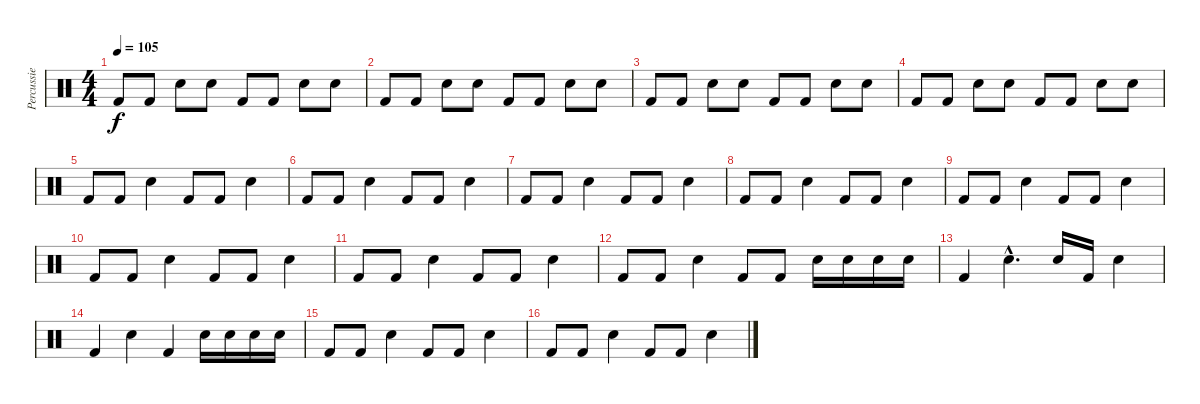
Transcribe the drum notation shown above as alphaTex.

\track ("Percussie" "Percussie") {instrument percussion}
\staff {score}
\articulation defaults
\ts (4 4)
\tempo 105
\clef neutral
\ks c "Kick (hit) 2".8{dy f} "Kick (hit) 2".8 "Electric Snare (hit)".8 "Electric Snare (hit)".8 "Kick (hit) 2".8 "Kick (hit) 2".8 "Electric Snare (hit)".8 "Electric Snare (hit)".8
|
"Kick (hit) 2".8 "Kick (hit) 2".8 "Electric Snare (hit)".8 "Electric Snare (hit)".8 "Kick (hit) 2".8 "Kick (hit) 2".8 "Electric Snare (hit)".8 "Electric Snare (hit)".8 |
"Kick (hit) 2".8 "Kick (hit) 2".8 "Electric Snare (hit)".8 "Electric Snare (hit)".8 "Kick (hit) 2".8 "Kick (hit) 2".8 "Electric Snare (hit)".8 "Electric Snare (hit)".8 |
"Kick (hit) 2".8 "Kick (hit) 2".8 "Electric Snare (hit)".8 "Electric Snare (hit)".8 "Kick (hit) 2".8 "Kick (hit) 2".8 "Electric Snare (hit)".8 "Electric Snare (hit)".8 |
"Kick (hit) 2".8 "Kick (hit) 2".8 "Electric Snare (hit)".4 "Kick (hit) 2".8 "Kick (hit) 2".8 "Electric Snare (hit)".4 |
"Kick (hit) 2".8 "Kick (hit) 2".8 "Electric Snare (hit)".4 "Kick (hit) 2".8 "Kick (hit) 2".8 "Electric Snare (hit)".4 |
"Kick (hit) 2".8 "Kick (hit) 2".8 "Electric Snare (hit)".4 "Kick (hit) 2".8 "Kick (hit) 2".8 "Electric Snare (hit)".4 |
"Kick (hit) 2".8 "Kick (hit) 2".8 "Electric Snare (hit)".4 "Kick (hit) 2".8 "Kick (hit) 2".8 "Electric Snare (hit)".4 |
"Kick (hit) 2".8 "Kick (hit) 2".8 "Electric Snare (hit)".4 "Kick (hit) 2".8 "Kick (hit) 2".8 "Electric Snare (hit)".4 |
"Kick (hit) 2".8 "Kick (hit) 2".8 "Electric Snare (hit)".4 "Kick (hit) 2".8 "Kick (hit) 2".8 "Electric Snare (hit)".4 |
"Kick (hit) 2".8 "Kick (hit) 2".8 "Electric Snare (hit)".4 "Kick (hit) 2".8 "Kick (hit) 2".8 "Electric Snare (hit)".4 |
"Kick (hit) 2".8 "Kick (hit) 2".8 "Electric Snare (hit)".4 "Kick (hit) 2".8 "Kick (hit) 2".8 "Electric Snare (hit)".16 "Electric Snare (hit)".16 "Electric Snare (hit)".16 "Electric Snare (hit)".16 |
"Kick (hit) 2".4 "Electric Snare (hit)"{hac}.4{d} "Electric Snare (hit)".16 "Kick (hit) 2".16 "Electric Snare (hit)".4 |
"Kick (hit) 2".4 "Electric Snare (hit)".4 "Kick (hit) 2".4 "Electric Snare (hit)".16 "Electric Snare (hit)".16 "Electric Snare (hit)".16 "Electric Snare (hit)".16 |
"Kick (hit) 2".8 "Kick (hit) 2".8 "Electric Snare (hit)".4 "Kick (hit) 2".8 "Kick (hit) 2".8 "Electric Snare (hit)".4 |
"Kick (hit) 2".8 "Kick (hit) 2".8 "Electric Snare (hit)".4 "Kick (hit) 2".8 "Kick (hit) 2".8 "Electric Snare (hit)".4
